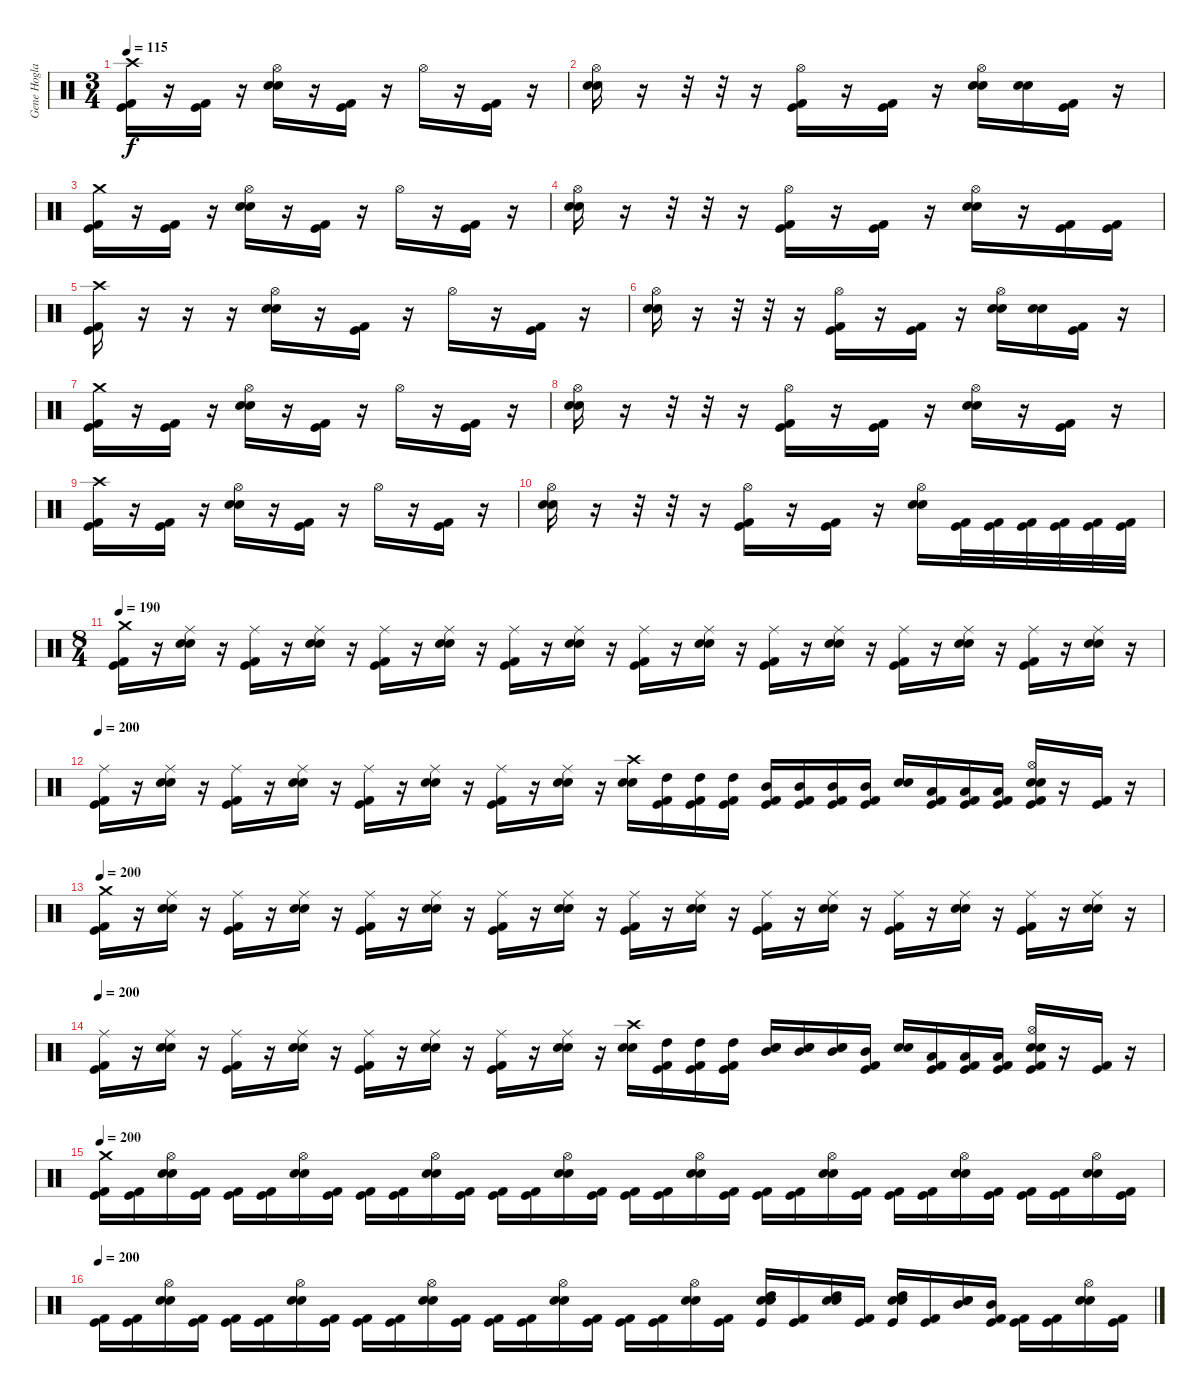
\track ("Gene Hoglan" "Gene Hogla") {instrument percussion}
\staff {score}
\articulation defaults
\ts (3 4)
\tempo 115
\clef neutral
\ks c
("Crash high (hit)" "Kick (hit) 2" "Kick (hit)").16{dy f} r.16 ("Kick (hit) 2" "Kick (hit)").16 r.16 ("Hi-Hat (open)" "Snare (hit) 2" "Electric Snare (hit)").16 r.16 ("Kick (hit) 2" "Kick (hit)").16 r.16 "Hi-Hat (open)".16 r.16 ("Kick (hit) 2" "Kick (hit)").16 r.16 |
("Hi-Hat (open)" "Snare (hit) 2" "Electric Snare (hit)").16 r.16 r.32 r.32 r.16 ("Hi-Hat (open)" "Kick (hit)" "Kick (hit) 2").16 r.16 ("Kick (hit)" "Kick (hit) 2").16 r.16 ("Hi-Hat (open)" "Snare (hit) 2" "Electric Snare (hit)").16 ("Snare (hit) 2" "Electric Snare (hit)").16 ("Kick (hit) 2" "Kick (hit)").16 r.16 |
("Crash medium (hit)" "Kick (hit) 2" "Kick (hit)").16 r.16 ("Kick (hit) 2" "Kick (hit)").16 r.16 ("Hi-Hat (open)" "Snare (hit) 2" "Electric Snare (hit)").16 r.16 ("Kick (hit) 2" "Kick (hit)").16 r.16 "Hi-Hat (open)".16 r.16 ("Kick (hit) 2" "Kick (hit)").16 r.16 |
("Hi-Hat (open)" "Snare (hit) 2" "Electric Snare (hit)").16 r.16 r.32 r.32 r.16 ("Hi-Hat (open)" "Kick (hit)" "Kick (hit) 2").16 r.16 ("Kick (hit)" "Kick (hit) 2").16 r.16 ("Hi-Hat (open)" "Snare (hit) 2" "Electric Snare (hit)").16 r.16 ("Kick (hit) 2" "Kick (hit)").16 ("Kick (hit) 2" "Kick (hit)").16 |
("Crash high (hit)" "Kick (hit) 2" "Kick (hit)").16 r.16 r.16 r.16 ("Hi-Hat (open)" "Snare (hit) 2" "Electric Snare (hit)").16 r.16 ("Kick (hit) 2" "Kick (hit)").16 r.16 "Hi-Hat (open)".16 r.16 ("Kick (hit) 2" "Kick (hit)").16 r.16 |
("Hi-Hat (open)" "Snare (hit) 2" "Electric Snare (hit)").16 r.16 r.32 r.32 r.16 ("Hi-Hat (open)" "Kick (hit)" "Kick (hit) 2").16 r.16 ("Kick (hit)" "Kick (hit) 2").16 r.16 ("Hi-Hat (open)" "Snare (hit) 2" "Electric Snare (hit)").16 ("Snare (hit) 2" "Electric Snare (hit)").16 ("Kick (hit) 2" "Kick (hit)").16 r.16 |
("Crash medium (hit)" "Kick (hit) 2" "Kick (hit)").16 r.16 ("Kick (hit) 2" "Kick (hit)").16 r.16 ("Hi-Hat (open)" "Snare (hit) 2" "Electric Snare (hit)").16 r.16 ("Kick (hit) 2" "Kick (hit)").16 r.16 "Hi-Hat (open)".16 r.16 ("Kick (hit) 2" "Kick (hit)").16 r.16 |
("Hi-Hat (open)" "Snare (hit) 2" "Electric Snare (hit)").16 r.16 r.32 r.32 r.16 ("Hi-Hat (open)" "Kick (hit)" "Kick (hit) 2").16 r.16 ("Kick (hit)" "Kick (hit) 2").16 r.16 ("Hi-Hat (open)" "Snare (hit) 2" "Electric Snare (hit)").16 r.16 ("Kick (hit) 2" "Kick (hit)").16 r.16 |
("Crash high (hit)" "Kick (hit) 2" "Kick (hit)").16 r.16 ("Kick (hit) 2" "Kick (hit)").16 r.16 ("Hi-Hat (open)" "Snare (hit) 2" "Electric Snare (hit)").16 r.16 ("Kick (hit) 2" "Kick (hit)").16 r.16 "Hi-Hat (open)".16 r.16 ("Kick (hit) 2" "Kick (hit)").16 r.16 |
("Hi-Hat (open)" "Snare (hit) 2" "Electric Snare (hit)").16 r.16 r.32 r.32 r.16 ("Hi-Hat (open)" "Kick (hit)" "Kick (hit) 2").16 r.16 ("Kick (hit)" "Kick (hit) 2").16 r.16 ("Hi-Hat (open)" "Snare (hit) 2" "Electric Snare (hit)").16 ("Kick (hit) 2" "Kick (hit)").32 ("Kick (hit) 2" "Kick (hit)").32 ("Kick (hit) 2" "Kick (hit)").32 ("Kick (hit) 2" "Kick (hit)").32 ("Kick (hit) 2" "Kick (hit)").32 ("Kick (hit) 2" "Kick (hit)").32 |
\ts (8 4)
\tempo 200
\tempo 190
("Crash medium (hit)" "Kick (hit) 2" "Kick (hit)").16 r.16 ("Ride (middle)" "Snare (hit) 2" "Electric Snare (hit)").16 r.16 ("Ride (middle)" "Kick (hit) 2" "Kick (hit)").16 r.16 ("Ride (middle)" "Snare (hit) 2" "Electric Snare (hit)").16 r.16 ("Ride (middle)" "Kick (hit)" "Kick (hit) 2").16 r.16 ("Ride (middle)" "Snare (hit) 2" "Electric Snare (hit)").16 r.16 ("Ride (middle)" "Kick (hit) 2" "Kick (hit)").16 r.16 ("Ride (middle)" "Snare (hit) 2" "Electric Snare (hit)").16 r.16 ("Ride (middle)" "Kick (hit) 2" "Kick (hit)").16 r.16 ("Ride (middle)" "Snare (hit) 2" "Electric Snare (hit)").16 r.16 ("Ride (middle)" "Kick (hit) 2" "Kick (hit)").16 r.16 ("Ride (middle)" "Snare (hit) 2" "Electric Snare (hit)").16 r.16 ("Ride (middle)" "Kick (hit) 2" "Kick (hit)").16 r.16 ("Ride (middle)" "Snare (hit) 2" "Electric Snare (hit)").16 r.16 ("Ride (middle)" "Kick (hit) 2" "Kick (hit)").16 r.16 ("Ride (middle)" "Snare (hit) 2" "Electric Snare (hit)").16 r.16 |
\tempo 200
("Ride (middle)" "Kick (hit) 2" "Kick (hit)").16 r.16 ("Ride (middle)" "Snare (hit) 2" "Electric Snare (hit)").16 r.16 ("Ride (middle)" "Kick (hit) 2" "Kick (hit)").16 r.16 ("Ride (middle)" "Snare (hit) 2" "Electric Snare (hit)").16 r.16 ("Ride (middle)" "Kick (hit)" "Kick (hit) 2").16 r.16 ("Ride (middle)" "Snare (hit) 2" "Electric Snare (hit)").16 r.16 ("Ride (middle)" "Kick (hit) 2" "Kick (hit)").16 r.16 ("Ride (middle)" "Snare (hit) 2" "Electric Snare (hit)").16 r.16 ("Crash high (hit)" "Snare (hit) 2" "Electric Snare (hit)").16 ("High Tom (hit)" "Kick (hit) 2" "Kick (hit)").16 ("High Tom (hit)" "Kick (hit) 2" "Kick (hit)").16 ("High Tom (hit)" "Kick (hit) 2" "Kick (hit)").16 ("Mid Tom (hit)" "Kick (hit) 2" "Kick (hit)").16 ("Mid Tom (hit)" "Kick (hit) 2" "Kick (hit)").16 ("Mid Tom (hit)" "Kick (hit) 2" "Kick (hit)").16 ("Mid Tom (hit)" "Kick (hit) 2" "Kick (hit)").16 ("Snare (hit) 2" "Electric Snare (hit)").16 ("Low Tom (hit)" "Kick (hit) 2" "Kick (hit)").16 ("Low Tom (hit)" "Kick (hit) 2" "Kick (hit)").16 ("Low Tom (hit)" "Kick (hit) 2" "Kick (hit)").16 ("Hi-Hat (open)" "Snare (hit) 2" "Electric Snare (hit)" "Kick (hit) 2" "Kick (hit)").16 r.16 ("Kick (hit) 2" "Kick (hit)").16 r.16 |
\tempo 200
("Crash medium (hit)" "Kick (hit) 2" "Kick (hit)").16 r.16 ("Ride (middle)" "Snare (hit) 2" "Electric Snare (hit)").16 r.16 ("Ride (middle)" "Kick (hit) 2" "Kick (hit)").16 r.16 ("Ride (middle)" "Snare (hit) 2" "Electric Snare (hit)").16 r.16 ("Ride (middle)" "Kick (hit)" "Kick (hit) 2").16 r.16 ("Ride (middle)" "Snare (hit) 2" "Electric Snare (hit)").16 r.16 ("Ride (middle)" "Kick (hit) 2" "Kick (hit)").16 r.16 ("Ride (middle)" "Snare (hit) 2" "Electric Snare (hit)").16 r.16 ("Ride (middle)" "Kick (hit) 2" "Kick (hit)").16 r.16 ("Ride (middle)" "Snare (hit) 2" "Electric Snare (hit)").16 r.16 ("Ride (middle)" "Kick (hit) 2" "Kick (hit)").16 r.16 ("Ride (middle)" "Snare (hit) 2" "Electric Snare (hit)").16 r.16 ("Ride (middle)" "Kick (hit) 2" "Kick (hit)").16 r.16 ("Ride (middle)" "Snare (hit) 2" "Electric Snare (hit)").16 r.16 ("Ride (middle)" "Kick (hit) 2" "Kick (hit)").16 r.16 ("Ride (middle)" "Snare (hit) 2" "Electric Snare (hit)").16 r.16 |
\tempo 200
("Ride (middle)" "Kick (hit) 2" "Kick (hit)").16 r.16 ("Ride (middle)" "Snare (hit) 2" "Electric Snare (hit)").16 r.16 ("Ride (middle)" "Kick (hit) 2" "Kick (hit)").16 r.16 ("Ride (middle)" "Snare (hit) 2" "Electric Snare (hit)").16 r.16 ("Ride (middle)" "Kick (hit)" "Kick (hit) 2").16 r.16 ("Ride (middle)" "Snare (hit) 2" "Electric Snare (hit)").16 r.16 ("Ride (middle)" "Kick (hit) 2" "Kick (hit)").16 r.16 ("Ride (middle)" "Snare (hit) 2" "Electric Snare (hit)").16 r.16 ("Crash high (hit)" "Snare (hit) 2" "Electric Snare (hit)").16 ("High Tom (hit)" "Kick (hit) 2" "Kick (hit)").16 ("High Tom (hit)" "Kick (hit) 2" "Kick (hit)").16 ("High Tom (hit)" "Kick (hit) 2" "Kick (hit)").16 ("Mid Tom (hit)" "Snare (hit) 2" "Electric Snare (hit)").16 ("Mid Tom (hit)" "Snare (hit) 2" "Electric Snare (hit)").16 ("Mid Tom (hit)" "Snare (hit) 2" "Electric Snare (hit)").16 ("Mid Tom (hit)" "Kick (hit) 2" "Kick (hit)").16 ("Snare (hit) 2" "Electric Snare (hit)").16 ("Low Tom (hit)" "Kick (hit) 2" "Kick (hit)").16 ("Low Tom (hit)" "Kick (hit) 2" "Kick (hit)").16 ("Low Tom (hit)" "Kick (hit) 2" "Kick (hit)").16 ("Hi-Hat (open)" "Snare (hit) 2" "Electric Snare (hit)" "Kick (hit) 2" "Kick (hit)").16 r.16 ("Kick (hit) 2" "Kick (hit)").16 r.16 |
\tempo 200
("Crash medium (hit)" "Kick (hit) 2" "Kick (hit)").16 ("Kick (hit) 2" "Kick (hit)").16 ("Hi-Hat (open)" "Snare (hit) 2" "Electric Snare (hit)").16 ("Kick (hit) 2" "Kick (hit)").16 ("Kick (hit) 2" "Kick (hit)").16 ("Kick (hit) 2" "Kick (hit)").16 ("Hi-Hat (open)" "Snare (hit) 2" "Electric Snare (hit)").16 ("Kick (hit) 2" "Kick (hit)").16 ("Kick (hit) 2" "Kick (hit)").16 ("Kick (hit) 2" "Kick (hit)").16 ("Hi-Hat (open)" "Snare (hit) 2" "Electric Snare (hit)").16 ("Kick (hit) 2" "Kick (hit)").16 ("Kick (hit) 2" "Kick (hit)").16 ("Kick (hit) 2" "Kick (hit)").16 ("Hi-Hat (open)" "Snare (hit) 2" "Electric Snare (hit)").16 ("Kick (hit) 2" "Kick (hit)").16 ("Kick (hit) 2" "Kick (hit)").16 ("Kick (hit) 2" "Kick (hit)").16 ("Hi-Hat (open)" "Snare (hit) 2" "Electric Snare (hit)").16 ("Kick (hit) 2" "Kick (hit)").16 ("Kick (hit) 2" "Kick (hit)").16 ("Kick (hit) 2" "Kick (hit)").16 ("Hi-Hat (open)" "Snare (hit) 2" "Electric Snare (hit)").16 ("Kick (hit) 2" "Kick (hit)").16 ("Kick (hit) 2" "Kick (hit)").16 ("Kick (hit) 2" "Kick (hit)").16 ("Hi-Hat (open)" "Snare (hit) 2" "Electric Snare (hit)").16 ("Kick (hit) 2" "Kick (hit)").16 ("Kick (hit) 2" "Kick (hit)").16 ("Kick (hit) 2" "Kick (hit)").16 ("Hi-Hat (open)" "Snare (hit) 2" "Electric Snare (hit)").16 ("Kick (hit) 2" "Kick (hit)").16 |
\tempo 200
("Kick (hit) 2" "Kick (hit)").16 ("Kick (hit) 2" "Kick (hit)").16 ("Hi-Hat (open)" "Snare (hit) 2" "Electric Snare (hit)").16 ("Kick (hit) 2" "Kick (hit)").16 ("Kick (hit) 2" "Kick (hit)").16 ("Kick (hit) 2" "Kick (hit)").16 ("Hi-Hat (open)" "Snare (hit) 2" "Electric Snare (hit)").16 ("Kick (hit) 2" "Kick (hit)").16 ("Kick (hit) 2" "Kick (hit)").16 ("Kick (hit) 2" "Kick (hit)").16 ("Hi-Hat (open)" "Snare (hit) 2" "Electric Snare (hit)").16 ("Kick (hit) 2" "Kick (hit)").16 ("Kick (hit) 2" "Kick (hit)").16 ("Kick (hit) 2" "Kick (hit)").16 ("Hi-Hat (open)" "Snare (hit) 2" "Electric Snare (hit)").16 ("Kick (hit) 2" "Kick (hit)").16 ("Kick (hit) 2" "Kick (hit)").16 ("Kick (hit) 2" "Kick (hit)").16 ("Hi-Hat (open)" "Snare (hit) 2" "Electric Snare (hit)").16 ("Kick (hit) 2" "Kick (hit)").16 ("High Tom (hit)" "Snare (hit) 2" "Electric Snare (hit)" "Kick (hit)").16 ("Kick (hit) 2" "Kick (hit)").16 ("High Tom (hit)" "Snare (hit) 2" "Electric Snare (hit)").16 ("Kick (hit) 2" "Kick (hit)").16 ("High Tom (hit)" "Snare (hit) 2" "Electric Snare (hit)" "Kick (hit)").16 ("Kick (hit) 2" "Kick (hit)").16 ("Mid Tom (hit)" "Snare (hit) 2" "Electric Snare (hit)").16 ("Mid Tom (hit)" "Kick (hit) 2" "Kick (hit)").16 ("Kick (hit) 2" "Kick (hit)").16 ("Kick (hit) 2" "Kick (hit)").16 ("Hi-Hat (open)" "Snare (hit) 2" "Electric Snare (hit)").16 ("Kick (hit) 2" "Kick (hit)").16
